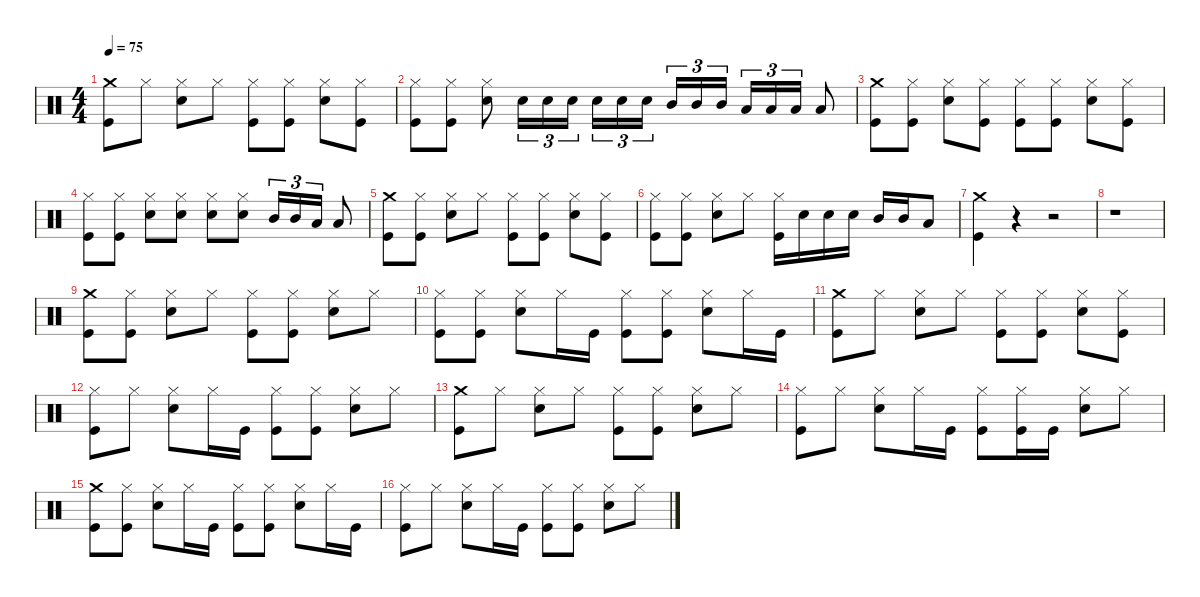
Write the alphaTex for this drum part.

\defaultSystemsLayout 4
\hideDynamics
\bracketExtendMode nobrackets
\singleTrackTrackNamePolicy hidden
\multiTrackTrackNamePolicy hidden
\otherSystemsTrackNameOrientation horizontal
\track ("John Bonham (Bateria)" "drm.") {instrument percussion}
\staff {score}
\articulation defaults
\ts (4 4)
\tempo 75
\clef neutral
\ks c
("Crash medium (hit)" "Kick (hit)").8{dy fff beam Down} "Hi-Hat (closed)".8{beam Down} ("Hi-Hat (closed)" "Snare (hit) 2").8{beam Down} "Hi-Hat (closed)".8{beam Down} ("Hi-Hat (closed)" "Kick (hit)").8{beam Down} ("Hi-Hat (closed)" "Kick (hit)").8{beam Down} ("Hi-Hat (closed)" "Snare (hit) 2").8{beam Down} ("Hi-Hat (closed)" "Kick (hit)").8{beam Down} |
("Hi-Hat (closed)" "Kick (hit)").8{beam Down} ("Hi-Hat (closed)" "Kick (hit)").8{beam Down} ("Hi-Hat (closed)" "Snare (hit) 2").8{beam Down} "Snare (hit) 2".16{tu (3 2) beam Down} "Snare (hit) 2".16{tu (3 2) beam Down} "Snare (hit) 2".16{tu (3 2) beam Down} "Snare (hit) 2".16{tu (3 2) beam Down} "Snare (hit) 2".16{tu (3 2) beam Down} "Snare (hit) 2".16{tu (3 2) beam Down} "Mid Tom (hit)".16{tu (3 2) beam Up} "Mid Tom (hit)".16{tu (3 2) beam Up} "Mid Tom (hit)".16{tu (3 2) beam Up} "Low Tom (hit)".16{tu (3 2) beam Up} "Low Tom (hit)".16{tu (3 2) beam Up} "Low Tom (hit)".16{tu (3 2) beam Up} "Low Tom (hit)".8{beam Up} |
("Crash medium (hit)" "Kick (hit)").8{beam Down} ("Hi-Hat (closed)" "Kick (hit)").8{beam Down} ("Hi-Hat (closed)" "Snare (hit) 2").8{beam Down} ("Hi-Hat (closed)" "Kick (hit)").8{beam Down} ("Hi-Hat (closed)" "Kick (hit)").8{beam Down} ("Hi-Hat (closed)" "Kick (hit)").8{beam Down} ("Hi-Hat (closed)" "Snare (hit) 2").8{beam Down} ("Hi-Hat (closed)" "Kick (hit)").8{beam Down} |
("Hi-Hat (closed)" "Kick (hit)").8{beam Down} ("Hi-Hat (closed)" "Kick (hit)").8{beam Down} ("Hi-Hat (closed)" "Snare (hit) 2").8{beam Down} ("Hi-Hat (closed)" "Snare (hit) 2").8{beam Down} ("Hi-Hat (closed)" "Snare (hit) 2").8{beam Down} ("Hi-Hat (closed)" "Snare (hit) 2").8{beam Down} "Mid Tom (hit)".16{tu (3 2) beam Up} "Mid Tom (hit)".16{tu (3 2) beam Up} "Low Tom (hit)".16{tu (3 2) beam Up} "Low Tom (hit)".8{beam Up} |
("Crash medium (hit)" "Kick (hit)").8{beam Down} ("Hi-Hat (closed)" "Kick (hit)").8{beam Down} ("Hi-Hat (closed)" "Snare (hit) 2").8{beam Down} "Hi-Hat (closed)".8{beam Down} ("Hi-Hat (closed)" "Kick (hit)").8{beam Down} ("Hi-Hat (closed)" "Kick (hit)").8{beam Down} ("Hi-Hat (closed)" "Snare (hit) 2").8{beam Down} ("Hi-Hat (closed)" "Kick (hit)").8{beam Down} |
("Hi-Hat (closed)" "Kick (hit)").8{beam Down} ("Hi-Hat (closed)" "Kick (hit)").8{beam Down} ("Hi-Hat (closed)" "Snare (hit) 2").8{beam Down} "Hi-Hat (closed)".8{beam Down} ("Hi-Hat (closed)" "Kick (hit)").16{beam Down} "Snare (hit) 2".16{beam Down} "Snare (hit) 2".16{beam Down} "Snare (hit) 2".16{beam Down} "Mid Tom (hit)".16{beam Up} "Mid Tom (hit)".16{beam Up} "Low Tom (hit)".8{beam Up} |
("Crash medium (hit)" "Kick (hit)").4{beam Down} r.4{beam Down} r.2{beam Down} |
r.1{beam Down} |
("Crash medium (hit)" "Kick (hit)").8{beam Down} ("Hi-Hat (closed)" "Kick (hit)").8{beam Down} ("Hi-Hat (closed)" "Snare (hit) 2").8{beam Down} "Hi-Hat (closed)".8{beam Down} ("Hi-Hat (closed)" "Kick (hit)").8{beam Down} ("Hi-Hat (closed)" "Kick (hit)").8{beam Down} ("Hi-Hat (closed)" "Snare (hit) 2").8{beam Down} "Hi-Hat (closed)".8{beam Down} |
("Hi-Hat (closed)" "Kick (hit)").8{beam Down} ("Hi-Hat (closed)" "Kick (hit)").8{beam Down} ("Hi-Hat (closed)" "Snare (hit) 2").8{beam Down} "Hi-Hat (closed)".16{beam Down} "Kick (hit)".16{beam Down} ("Hi-Hat (closed)" "Kick (hit)").8{beam Down} ("Hi-Hat (closed)" "Kick (hit)").8{beam Down} ("Hi-Hat (closed)" "Snare (hit) 2").8{beam Down} "Hi-Hat (closed)".16{beam Down} "Kick (hit)".16{beam Down} |
("Crash medium (hit)" "Kick (hit)").8{beam Down} "Hi-Hat (closed)".8{beam Down} ("Hi-Hat (closed)" "Snare (hit) 2").8{beam Down} "Hi-Hat (closed)".8{beam Down} ("Hi-Hat (closed)" "Kick (hit)").8{beam Down} ("Hi-Hat (closed)" "Kick (hit)").8{beam Down} ("Hi-Hat (closed)" "Snare (hit) 2").8{beam Down} ("Hi-Hat (closed)" "Kick (hit)").8{beam Down} |
("Hi-Hat (closed)" "Kick (hit)").8{beam Down} "Hi-Hat (closed)".8{beam Down} ("Hi-Hat (closed)" "Snare (hit) 2").8{beam Down} "Hi-Hat (closed)".16{beam Down} "Kick (hit)".16{beam Down} ("Hi-Hat (closed)" "Kick (hit)").8{beam Down} ("Hi-Hat (closed)" "Kick (hit)").8{beam Down} ("Hi-Hat (closed)" "Snare (hit) 2").8{beam Down} "Hi-Hat (closed)".8{beam Down} |
("Crash medium (hit)" "Kick (hit)").8{beam Down} "Hi-Hat (closed)".8{beam Down} ("Hi-Hat (closed)" "Snare (hit) 2").8{beam Down} "Hi-Hat (closed)".8{beam Down} ("Hi-Hat (closed)" "Kick (hit)").8{beam Down} ("Hi-Hat (closed)" "Kick (hit)").8{beam Down} ("Hi-Hat (closed)" "Snare (hit) 2").8{beam Down} "Hi-Hat (closed)".8{beam Down} |
("Hi-Hat (closed)" "Kick (hit)").8{beam Down} "Hi-Hat (closed)".8{beam Down} ("Hi-Hat (closed)" "Snare (hit) 2").8{beam Down} "Hi-Hat (closed)".16{beam Down} "Kick (hit)".16{beam Down} ("Hi-Hat (closed)" "Kick (hit)").8{beam Down} ("Hi-Hat (closed)" "Kick (hit)").16{beam Down} "Kick (hit)".16{beam Down} ("Hi-Hat (closed)" "Snare (hit) 2").8{beam Down} "Hi-Hat (closed)".8{beam Down} |
("Crash medium (hit)" "Kick (hit)").8{beam Down} ("Hi-Hat (closed)" "Kick (hit)").8{beam Down} ("Hi-Hat (closed)" "Snare (hit) 2").8{beam Down} "Hi-Hat (closed)".16{beam Down} "Kick (hit)".16{beam Down} ("Hi-Hat (closed)" "Kick (hit)").8{beam Down} ("Hi-Hat (closed)" "Kick (hit)").8{beam Down} ("Hi-Hat (closed)" "Snare (hit) 2").8{beam Down} "Hi-Hat (closed)".16{beam Down} "Kick (hit)".16{beam Down} |
("Hi-Hat (closed)" "Kick (hit)").8{beam Down} "Hi-Hat (closed)".8{beam Down} ("Hi-Hat (closed)" "Snare (hit) 2").8{beam Down} "Hi-Hat (closed)".16{beam Down} "Kick (hit)".16{beam Down} ("Hi-Hat (closed)" "Kick (hit)").8{beam Down} ("Hi-Hat (closed)" "Kick (hit)").8{beam Down} ("Hi-Hat (closed)" "Snare (hit) 2").8{beam Down} "Hi-Hat (closed)".8{beam Down}
